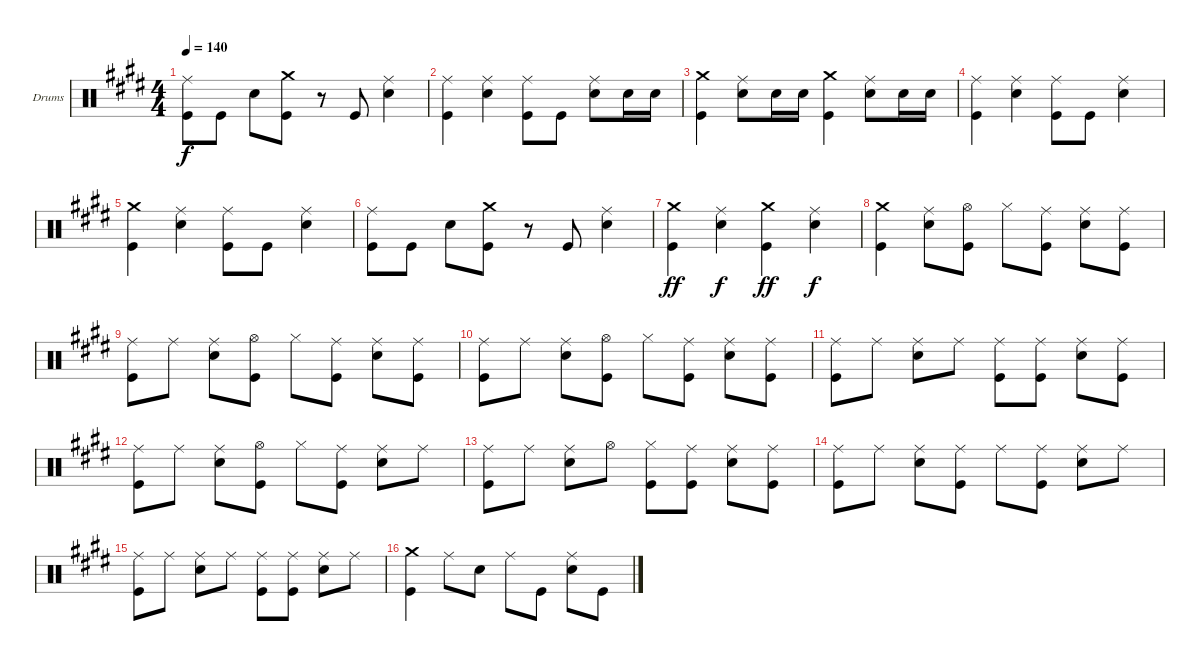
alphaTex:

\bracketExtendMode groupsimilarinstruments
\firstSystemTrackNameOrientation horizontal
\otherSystemsTrackNameOrientation horizontal
\track ("Drumkit" "Drums") {instrument percussion}
\staff {score}
\articulation defaults
\ts (4 4)
\tempo 140
\clef neutral
\ks e
("Ride (middle)" "Kick (hit)").8{dy f} "Kick (hit)".8 "Snare (hit) 2".8 ("Crash medium (hit)" "Kick (hit)").8 r.8 "Kick (hit)".8 ("Ride (middle)" "Snare (hit) 2").4 |
("Ride (middle)" "Kick (hit)").4 ("Ride (middle)" "Snare (hit) 2").4 ("Ride (middle)" "Kick (hit)").8 "Kick (hit)".8 ("Ride (middle)" "Snare (hit) 2").8 "Snare (hit) 2".16 "Snare (hit) 2".16 |
("Crash medium (hit)" "Kick (hit)").4 ("Ride (middle)" "Snare (hit) 2").8 "Snare (hit) 2".16 "Snare (hit) 2".16 ("Crash medium (hit)" "Kick (hit)").4 ("Ride (middle)" "Snare (hit) 2").8 "Snare (hit) 2".16 "Snare (hit) 2".16 |
("Ride (middle)" "Kick (hit)").4 ("Ride (middle)" "Snare (hit) 2").4 ("Ride (middle)" "Kick (hit)").8 "Kick (hit)".8 ("Ride (middle)" "Snare (hit) 2").4 |
("Crash medium (hit)" "Kick (hit)").4 ("Ride (middle)" "Snare (hit) 2").4 ("Ride (middle)" "Kick (hit)").8 "Kick (hit)".8 ("Ride (middle)" "Snare (hit) 2").4 |
("Ride (middle)" "Kick (hit)").8 "Kick (hit)".8 "Snare (hit) 2".8 ("Crash medium (hit)" "Kick (hit)").8 r.8 "Kick (hit)".8 ("Ride (middle)" "Snare (hit) 2").4 |
("Crash medium (hit)" "Kick (hit)").4{dy ff} ("Ride (middle)" "Snare (hit) 2").4{dy f} ("Crash medium (hit)" "Kick (hit)").4{dy ff} ("Ride (middle)" "Snare (hit) 2").4{dy f} |
("Crash medium (hit)" "Kick (hit)").4 ("Ride (middle)" "Snare (hit) 2").8 ("Hi-Hat (open)" "Kick (hit)").8 "Hi-Hat (closed)".8 ("Ride (middle)" "Kick (hit)").8 ("Ride (middle)" "Snare (hit) 2").8 ("Ride (middle)" "Kick (hit)").8 |
("Ride (middle)" "Kick (hit)").8 "Ride (middle)".8 ("Ride (middle)" "Snare (hit) 2").8 ("Hi-Hat (open)" "Kick (hit)").8 "Hi-Hat (closed)".8 ("Ride (middle)" "Kick (hit)").8 ("Ride (middle)" "Snare (hit) 2").8 ("Ride (middle)" "Kick (hit)").8 |
("Ride (middle)" "Kick (hit)").8 "Ride (middle)".8 ("Ride (middle)" "Snare (hit) 2").8 ("Hi-Hat (open)" "Kick (hit)").8 "Hi-Hat (closed)".8 ("Ride (middle)" "Kick (hit)").8 ("Ride (middle)" "Snare (hit) 2").8 ("Ride (middle)" "Kick (hit)").8 |
("Ride (middle)" "Kick (hit)").8 "Ride (middle)".8 ("Ride (middle)" "Snare (hit) 2").8 "Ride (middle)".8 ("Ride (middle)" "Kick (hit)").8 ("Ride (middle)" "Kick (hit)").8 ("Ride (middle)" "Snare (hit) 2").8 ("Ride (middle)" "Kick (hit)").8 |
("Ride (middle)" "Kick (hit)").8 "Ride (middle)".8 ("Ride (middle)" "Snare (hit) 2").8 ("Hi-Hat (open)" "Kick (hit)").8 "Hi-Hat (closed)".8 ("Ride (middle)" "Kick (hit)").8 ("Ride (middle)" "Snare (hit) 2").8 "Ride (middle)".8 |
("Ride (middle)" "Kick (hit)").8 "Ride (middle)".8 ("Ride (middle)" "Snare (hit) 2").8 "Hi-Hat (open)".8 ("Hi-Hat (closed)" "Kick (hit)").8 ("Ride (middle)" "Kick (hit)").8 ("Ride (middle)" "Snare (hit) 2").8 ("Ride (middle)" "Kick (hit)").8 |
("Ride (middle)" "Kick (hit)").8 "Ride (middle)".8 ("Ride (middle)" "Snare (hit) 2").8 ("Ride (middle)" "Kick (hit)").8 "Ride (middle)".8 ("Ride (middle)" "Kick (hit)").8 ("Ride (middle)" "Snare (hit) 2").8 "Ride (middle)".8 |
("Ride (middle)" "Kick (hit)").8 "Ride (middle)".8 ("Ride (middle)" "Snare (hit) 2").8 "Ride (middle)".8 ("Ride (middle)" "Kick (hit)").8 ("Ride (middle)" "Kick (hit)").8 ("Ride (middle)" "Snare (hit) 2").8 "Ride (middle)".8 |
("Crash medium (hit)" "Kick (hit)").4 "Ride (middle)".8 "Snare (hit) 2".8 "Ride (middle)".8 "Kick (hit)".8 ("Ride (middle)" "Snare (hit) 2").8 "Kick (hit)".8
